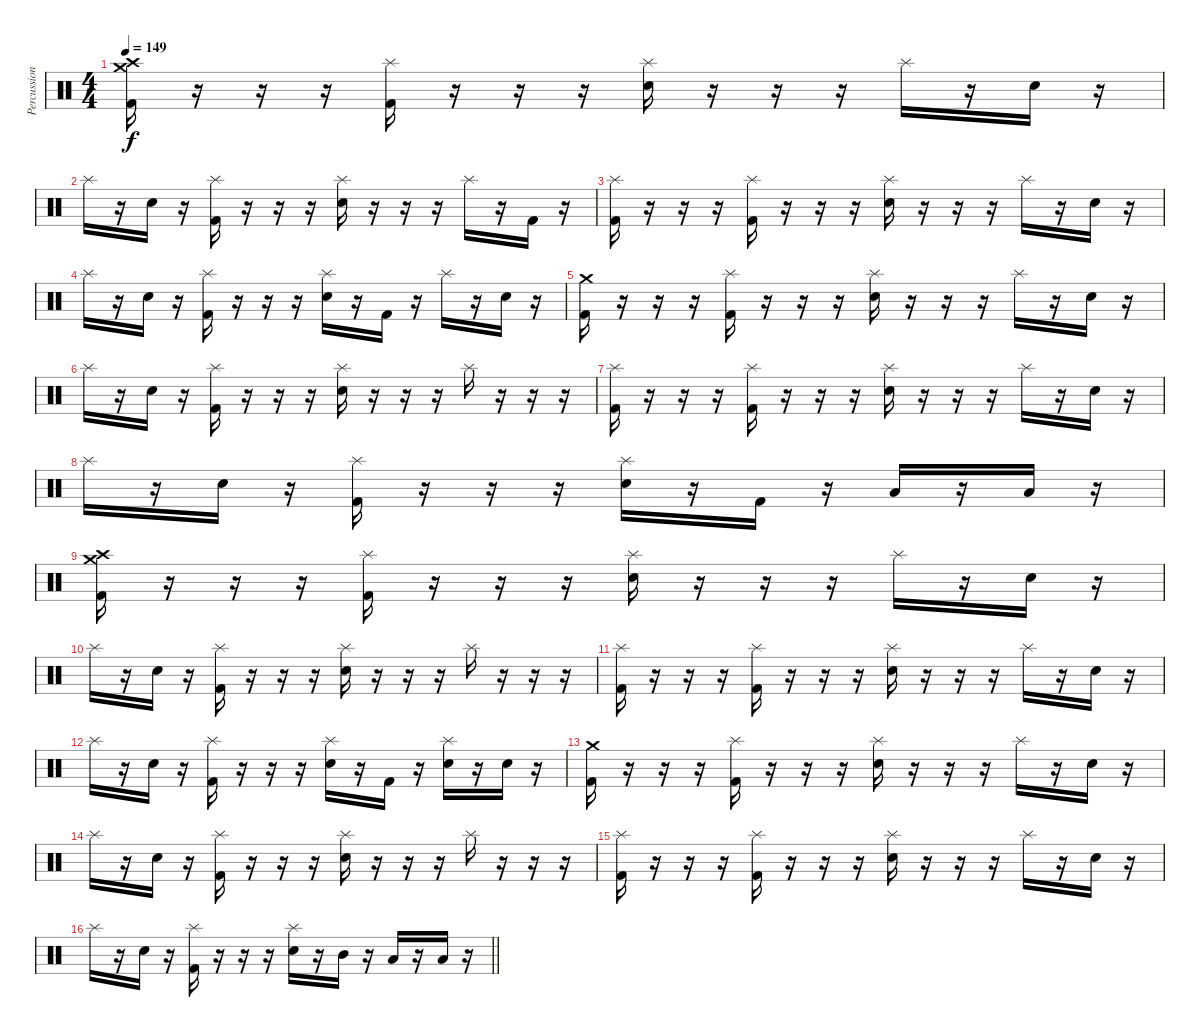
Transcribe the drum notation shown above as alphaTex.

\track ("Percussion" "Percussion") {instrument percussion}
\staff {score}
\articulation defaults
\ts (4 4)
\tempo 149
\clef neutral
\ks c
("Crash medium (hit)" "Crash high (hit)" "Kick (hit) 2").16{dy f} r.16 r.16 r.16 ("Splash (hit)" "Kick (hit) 2").16 r.16 r.16 r.16 ("Splash (hit)" "Electric Snare (hit)").16 r.16 r.16 r.16 "Splash (hit)".16 r.16 "Electric Snare (hit)".16 r.16 |
"Splash (hit)".16 r.16 "Electric Snare (hit)".16 r.16 ("Splash (hit)" "Kick (hit) 2").16 r.16 r.16 r.16 ("Splash (hit)" "Electric Snare (hit)").16 r.16 r.16 r.16 "Splash (hit)".16 r.16 "Kick (hit) 2".16 r.16 |
("Splash (hit)" "Kick (hit) 2").16 r.16 r.16 r.16 ("Splash (hit)" "Kick (hit) 2").16 r.16 r.16 r.16 ("Splash (hit)" "Electric Snare (hit)").16 r.16 r.16 r.16 "Splash (hit)".16 r.16 "Electric Snare (hit)".16 r.16 |
"Splash (hit)".16 r.16 "Electric Snare (hit)".16 r.16 ("Splash (hit)" "Kick (hit) 2").16 r.16 r.16 r.16 ("Splash (hit)" "Electric Snare (hit)").16 r.16 "Kick (hit) 2".16 r.16 "Splash (hit)".16 r.16 "Electric Snare (hit)".16 r.16 |
("Crash medium (hit)" "Kick (hit) 2").16 r.16 r.16 r.16 ("Splash (hit)" "Kick (hit) 2").16 r.16 r.16 r.16 ("Splash (hit)" "Electric Snare (hit)").16 r.16 r.16 r.16 "Splash (hit)".16 r.16 "Electric Snare (hit)".16 r.16 |
"Splash (hit)".16 r.16 "Electric Snare (hit)".16 r.16 ("Splash (hit)" "Kick (hit) 2").16 r.16 r.16 r.16 ("Splash (hit)" "Electric Snare (hit)").16 r.16 r.16 r.16 "Splash (hit)".16 r.16 r.16 r.16 |
("Splash (hit)" "Kick (hit) 2").16 r.16 r.16 r.16 ("Splash (hit)" "Kick (hit) 2").16 r.16 r.16 r.16 ("Splash (hit)" "Electric Snare (hit)").16 r.16 r.16 r.16 "Splash (hit)".16 r.16 "Electric Snare (hit)".16 r.16 |
"Splash (hit)".16 r.16 "Electric Snare (hit)".16 r.16 ("Splash (hit)" "Kick (hit) 2").16 r.16 r.16 r.16 ("Splash (hit)" "Electric Snare (hit)").16 r.16 "Kick (hit) 2".16 r.16 "Low Tom (hit)".16 r.16 "Low Tom (hit)".16 r.16 |
("Crash medium (hit)" "Crash high (hit)" "Kick (hit) 2").16 r.16 r.16 r.16 ("Splash (hit)" "Kick (hit) 2").16 r.16 r.16 r.16 ("Splash (hit)" "Electric Snare (hit)").16 r.16 r.16 r.16 "Splash (hit)".16 r.16 "Electric Snare (hit)".16 r.16 |
"Splash (hit)".16 r.16 "Electric Snare (hit)".16 r.16 ("Splash (hit)" "Kick (hit) 2").16 r.16 r.16 r.16 ("Splash (hit)" "Electric Snare (hit)").16 r.16 r.16 r.16 "Splash (hit)".16 r.16 r.16 r.16 |
("Splash (hit)" "Kick (hit) 2").16 r.16 r.16 r.16 ("Splash (hit)" "Kick (hit) 2").16 r.16 r.16 r.16 ("Splash (hit)" "Electric Snare (hit)").16 r.16 r.16 r.16 "Splash (hit)".16 r.16 "Electric Snare (hit)".16 r.16 |
"Splash (hit)".16 r.16 "Electric Snare (hit)".16 r.16 ("Splash (hit)" "Kick (hit) 2").16 r.16 r.16 r.16 ("Splash (hit)" "Electric Snare (hit)").16 r.16 "Kick (hit) 2".16 r.16 ("Splash (hit)" "Electric Snare (hit)").16 r.16 "Electric Snare (hit)".16 r.16 |
("Crash medium (hit)" "Kick (hit) 2").16 r.16 r.16 r.16 ("Splash (hit)" "Kick (hit) 2").16 r.16 r.16 r.16 ("Splash (hit)" "Electric Snare (hit)").16 r.16 r.16 r.16 "Splash (hit)".16 r.16 "Electric Snare (hit)".16 r.16 |
"Splash (hit)".16 r.16 "Electric Snare (hit)".16 r.16 ("Splash (hit)" "Kick (hit) 2").16 r.16 r.16 r.16 ("Splash (hit)" "Electric Snare (hit)").16 r.16 r.16 r.16 "Splash (hit)".16 r.16 r.16 r.16 |
("Splash (hit)" "Kick (hit) 2").16 r.16 r.16 r.16 ("Splash (hit)" "Kick (hit) 2").16 r.16 r.16 r.16 ("Splash (hit)" "Electric Snare (hit)").16 r.16 r.16 r.16 "Splash (hit)".16 r.16 "Electric Snare (hit)".16 r.16 |
\barLineRight lightlight "Splash (hit)".16
r.16 "Electric Snare (hit)".16 r.16 ("Splash (hit)" "Kick (hit) 2").16 r.16 r.16 r.16 ("Splash (hit)" "Electric Snare (hit)").16 r.16 "Mid Tom (hit)".16 r.16 "Low Tom (hit)".16 r.16 "Low Tom (hit)".16 r.16
